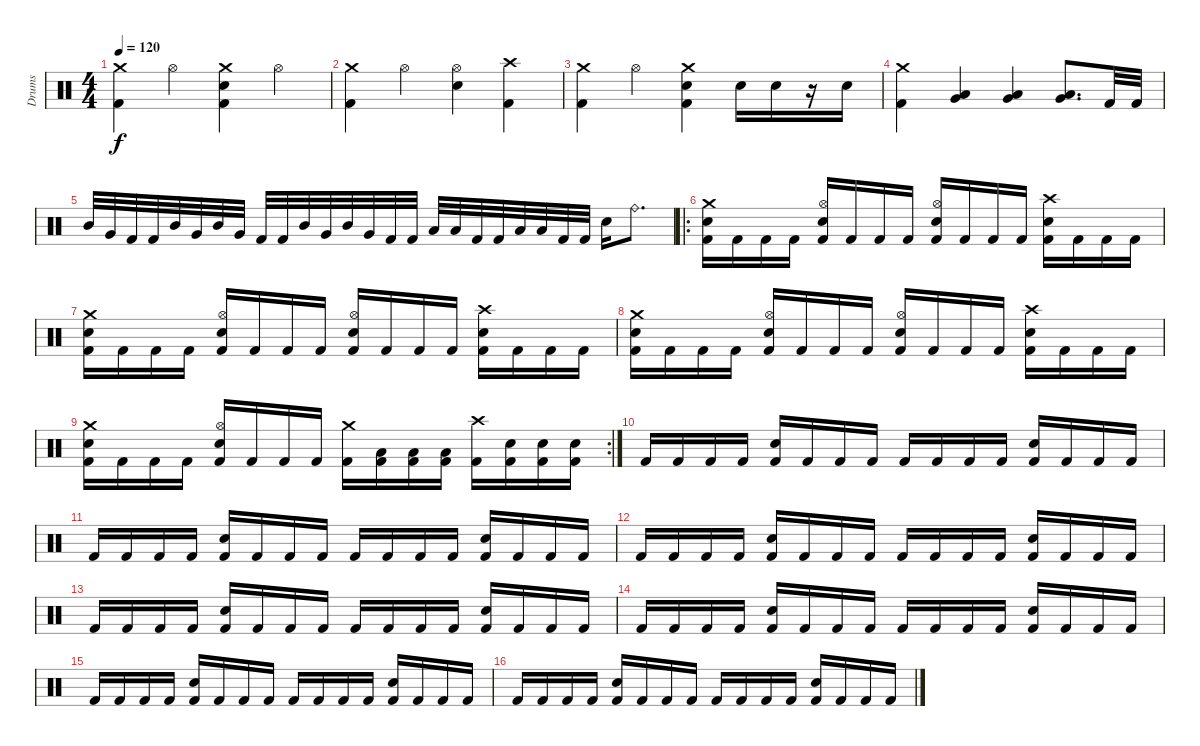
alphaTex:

\track ("Drums" "Drums") {instrument percussion}
\staff {score}
\articulation defaults
\ts (4 4)
\tempo 120
\clef neutral
\ks c
("Crash medium (hit)" "Kick (hit) 2").4{dy f} "Hi-Hat (open)".4 ("Crash medium (hit)" "Electric Snare (hit)" "Kick (hit) 2").4 "Hi-Hat (open)".4 |
("Crash medium (hit)" "Kick (hit) 2").4 "Hi-Hat (open)".4 ("Hi-Hat (open)" "Electric Snare (hit)").4 ("Crash high (hit)" "Kick (hit) 2").4 |
("Crash medium (hit)" "Kick (hit) 2").4 "Hi-Hat (open)".4 ("Crash medium (hit)" "Electric Snare (hit)" "Kick (hit) 2").4 "Electric Snare (hit)".16 "Electric Snare (hit)".16 r.16 "Electric Snare (hit)".16 |
("Crash medium (hit)" "Kick (hit) 2").4 ("Low Floor Tom (hit)" "Very Low Tom (hit)").4 ("Low Floor Tom (hit)" "Very Low Tom (hit)").4 ("Low Floor Tom (hit)" "Very Low Tom (hit)").8{d} "Kick (hit) 2".32 "Kick (hit) 2".32 |
"Mid Tom (hit)".32 "Very Low Tom (hit)".32 "Kick (hit) 2".32 "Kick (hit) 2".32 "Mid Tom (hit)".32 "Very Low Tom (hit)".32 "Mid Tom (hit)".32 "Very Low Tom (hit)".32 "Kick (hit) 2".32 "Kick (hit) 2".32 "Mid Tom (hit)".32 "Very Low Tom (hit)".32 "Mid Tom (hit)".32 "Very Low Tom (hit)".32 "Kick (hit) 2".32 "Kick (hit) 2".32 "Low Tom (hit)".32 "Low Tom (hit)".32 "Kick (hit) 2".32 "Kick (hit) 2".32 "Low Floor Tom (hit)".32 "Low Floor Tom (hit)".32 "Kick (hit) 2".32 "Kick (hit) 2".32 "Electric Snare (hit)".16 "Ride (bell)".8{d} |
\ro
("Crash medium (hit)" "Electric Snare (hit)" "Kick (hit) 2").16 "Kick (hit) 2".16 "Kick (hit) 2".16 "Kick (hit) 2".16 ("Hi-Hat (open)" "Electric Snare (hit)" "Kick (hit) 2").16 "Kick (hit) 2".16 "Kick (hit) 2".16 "Kick (hit) 2".16 ("Hi-Hat (open)" "Electric Snare (hit)" "Kick (hit) 2").16 "Kick (hit) 2".16 "Kick (hit) 2".16 "Kick (hit) 2".16 ("Crash high (hit)" "Electric Snare (hit)" "Kick (hit) 2").16 "Kick (hit) 2".16 "Kick (hit) 2".16 "Kick (hit) 2".16 |
("Crash medium (hit)" "Electric Snare (hit)" "Kick (hit) 2").16 "Kick (hit) 2".16 "Kick (hit) 2".16 "Kick (hit) 2".16 ("Hi-Hat (open)" "Electric Snare (hit)" "Kick (hit) 2").16 "Kick (hit) 2".16 "Kick (hit) 2".16 "Kick (hit) 2".16 ("Hi-Hat (open)" "Electric Snare (hit)" "Kick (hit) 2").16 "Kick (hit) 2".16 "Kick (hit) 2".16 "Kick (hit) 2".16 ("Crash high (hit)" "Electric Snare (hit)" "Kick (hit) 2").16 "Kick (hit) 2".16 "Kick (hit) 2".16 "Kick (hit) 2".16 |
("Crash medium (hit)" "Electric Snare (hit)" "Kick (hit) 2").16 "Kick (hit) 2".16 "Kick (hit) 2".16 "Kick (hit) 2".16 ("Hi-Hat (open)" "Electric Snare (hit)" "Kick (hit) 2").16 "Kick (hit) 2".16 "Kick (hit) 2".16 "Kick (hit) 2".16 ("Hi-Hat (open)" "Electric Snare (hit)" "Kick (hit) 2").16 "Kick (hit) 2".16 "Kick (hit) 2".16 "Kick (hit) 2".16 ("Crash high (hit)" "Electric Snare (hit)" "Kick (hit) 2").16 "Kick (hit) 2".16 "Kick (hit) 2".16 "Kick (hit) 2".16 |
\rc 2
("Crash medium (hit)" "Electric Snare (hit)" "Kick (hit) 2").16 "Kick (hit) 2".16 "Kick (hit) 2".16 "Kick (hit) 2".16 ("Hi-Hat (open)" "Electric Snare (hit)" "Kick (hit) 2").16 "Kick (hit) 2".16 "Kick (hit) 2".16 "Kick (hit) 2".16 ("Crash medium (hit)" "Kick (hit) 2").16 ("Low Tom (hit)" "Kick (hit) 2").16 ("Low Tom (hit)" "Kick (hit) 2").16 ("Low Tom (hit)" "Kick (hit) 2").16 ("Crash high (hit)" "Kick (hit) 2").16 ("Electric Snare (hit)" "Kick (hit) 2").16 ("Electric Snare (hit)" "Kick (hit) 2").16 ("Electric Snare (hit)" "Kick (hit) 2").16 |
"Kick (hit) 2".16 "Kick (hit) 2".16 "Kick (hit) 2".16 "Kick (hit) 2".16 ("Electric Snare (hit)" "Kick (hit) 2").16 "Kick (hit) 2".16 "Kick (hit) 2".16 "Kick (hit) 2".16 "Kick (hit) 2".16 "Kick (hit) 2".16 "Kick (hit) 2".16 "Kick (hit) 2".16 ("Electric Snare (hit)" "Kick (hit) 2").16 "Kick (hit) 2".16 "Kick (hit) 2".16 "Kick (hit) 2".16 |
"Kick (hit) 2".16 "Kick (hit) 2".16 "Kick (hit) 2".16 "Kick (hit) 2".16 ("Electric Snare (hit)" "Kick (hit) 2").16 "Kick (hit) 2".16 "Kick (hit) 2".16 "Kick (hit) 2".16 "Kick (hit) 2".16 "Kick (hit) 2".16 "Kick (hit) 2".16 "Kick (hit) 2".16 ("Electric Snare (hit)" "Kick (hit) 2").16 "Kick (hit) 2".16 "Kick (hit) 2".16 "Kick (hit) 2".16 |
"Kick (hit) 2".16 "Kick (hit) 2".16 "Kick (hit) 2".16 "Kick (hit) 2".16 ("Electric Snare (hit)" "Kick (hit) 2").16 "Kick (hit) 2".16 "Kick (hit) 2".16 "Kick (hit) 2".16 "Kick (hit) 2".16 "Kick (hit) 2".16 "Kick (hit) 2".16 "Kick (hit) 2".16 ("Electric Snare (hit)" "Kick (hit) 2").16 "Kick (hit) 2".16 "Kick (hit) 2".16 "Kick (hit) 2".16 |
"Kick (hit) 2".16 "Kick (hit) 2".16 "Kick (hit) 2".16 "Kick (hit) 2".16 ("Electric Snare (hit)" "Kick (hit) 2").16 "Kick (hit) 2".16 "Kick (hit) 2".16 "Kick (hit) 2".16 "Kick (hit) 2".16 "Kick (hit) 2".16 "Kick (hit) 2".16 "Kick (hit) 2".16 ("Electric Snare (hit)" "Kick (hit) 2").16 "Kick (hit) 2".16 "Kick (hit) 2".16 "Kick (hit) 2".16 |
"Kick (hit) 2".16 "Kick (hit) 2".16 "Kick (hit) 2".16 "Kick (hit) 2".16 ("Electric Snare (hit)" "Kick (hit) 2").16 "Kick (hit) 2".16 "Kick (hit) 2".16 "Kick (hit) 2".16 "Kick (hit) 2".16 "Kick (hit) 2".16 "Kick (hit) 2".16 "Kick (hit) 2".16 ("Electric Snare (hit)" "Kick (hit) 2").16 "Kick (hit) 2".16 "Kick (hit) 2".16 "Kick (hit) 2".16 |
"Kick (hit) 2".16 "Kick (hit) 2".16 "Kick (hit) 2".16 "Kick (hit) 2".16 ("Electric Snare (hit)" "Kick (hit) 2").16 "Kick (hit) 2".16 "Kick (hit) 2".16 "Kick (hit) 2".16 "Kick (hit) 2".16 "Kick (hit) 2".16 "Kick (hit) 2".16 "Kick (hit) 2".16 ("Electric Snare (hit)" "Kick (hit) 2").16 "Kick (hit) 2".16 "Kick (hit) 2".16 "Kick (hit) 2".16 |
"Kick (hit) 2".16 "Kick (hit) 2".16 "Kick (hit) 2".16 "Kick (hit) 2".16 ("Electric Snare (hit)" "Kick (hit) 2").16 "Kick (hit) 2".16 "Kick (hit) 2".16 "Kick (hit) 2".16 "Kick (hit) 2".16 "Kick (hit) 2".16 "Kick (hit) 2".16 "Kick (hit) 2".16 ("Electric Snare (hit)" "Kick (hit) 2").16 "Kick (hit) 2".16 "Kick (hit) 2".16 "Kick (hit) 2".16
